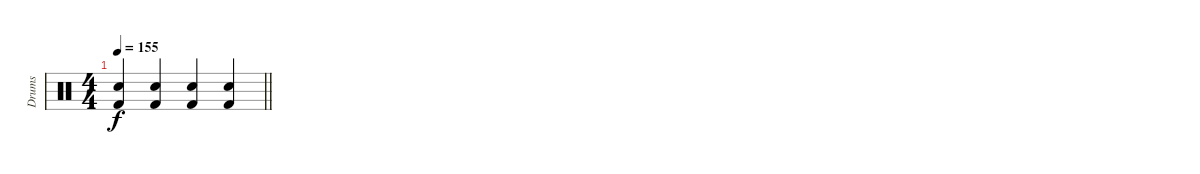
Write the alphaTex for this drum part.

\track ("Drums" "Drums") {instrument percussion}
\staff {score}
\articulation defaults
\ts (4 4)
\tempo 155
\clef neutral
\barLineRight lightlight
\ks c
("Electric Snare (hit)" "Kick (hit) 2").4{dy f} ("Electric Snare (hit)" "Kick (hit) 2").4 ("Electric Snare (hit)" "Kick (hit) 2").4 ("Electric Snare (hit)" "Kick (hit) 2").4
